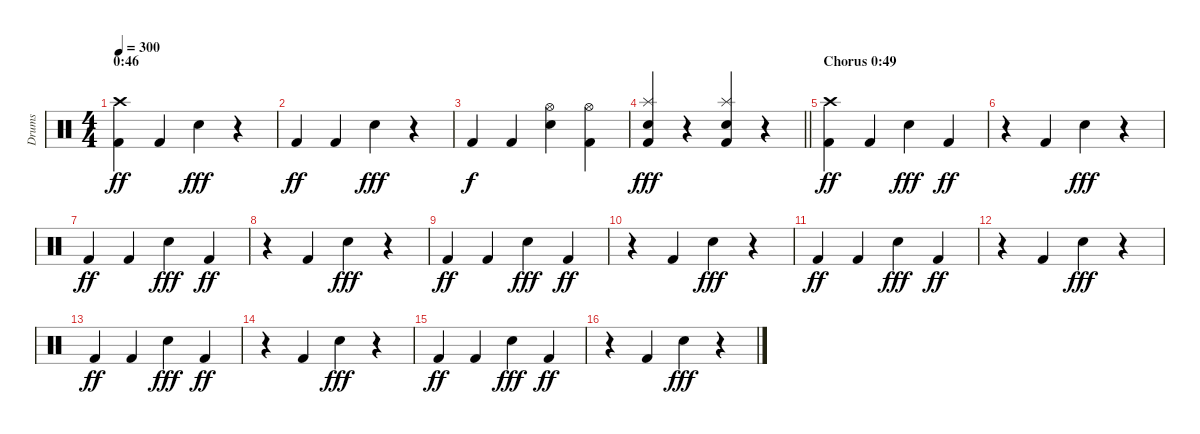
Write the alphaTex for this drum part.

\track ("Drums" "Drums") {instrument percussion}
\staff {score}
\articulation defaults
\ts (4 4)
\section ("" "0:46")
\tempo 300
\clef neutral
\ks c
("Crash high (hit)" "Kick (hit) 2").4{dy ff} "Kick (hit) 2".4 "Electric Snare (hit)".4{dy fff} r.4 |
"Kick (hit) 2".4{dy ff} "Kick (hit) 2".4 "Electric Snare (hit)".4{dy fff} r.4 |
"Kick (hit) 2".4{dy f} "Kick (hit) 2".4 ("Hi-Hat (open)" "Electric Snare (hit)").4 ("Hi-Hat (open)" "Kick (hit) 2").4 |
\barLineRight lightlight
("Splash (hit)" "Snare (hit) 2" "Kick (hit) 2").4{dy fff} r.4 ("Splash (hit)" "Snare (hit) 2" "Kick (hit) 2").4 r.4 |
\section ("" "Chorus 0:49")
("Crash high (hit)" "Kick (hit) 2").4{dy ff} "Kick (hit) 2".4 "Electric Snare (hit)".4{dy fff} "Kick (hit) 2".4{dy ff} |
r.4 "Kick (hit) 2".4 "Electric Snare (hit)".4{dy fff} r.4 |
"Kick (hit) 2".4{dy ff} "Kick (hit) 2".4 "Electric Snare (hit)".4{dy fff} "Kick (hit) 2".4{dy ff} |
r.4 "Kick (hit) 2".4 "Electric Snare (hit)".4{dy fff} r.4 |
"Kick (hit) 2".4{dy ff} "Kick (hit) 2".4 "Electric Snare (hit)".4{dy fff} "Kick (hit) 2".4{dy ff} |
r.4 "Kick (hit) 2".4 "Electric Snare (hit)".4{dy fff} r.4 |
"Kick (hit) 2".4{dy ff} "Kick (hit) 2".4 "Electric Snare (hit)".4{dy fff} "Kick (hit) 2".4{dy ff} |
r.4 "Kick (hit) 2".4 "Electric Snare (hit)".4{dy fff} r.4 |
"Kick (hit) 2".4{dy ff} "Kick (hit) 2".4 "Electric Snare (hit)".4{dy fff} "Kick (hit) 2".4{dy ff} |
r.4 "Kick (hit) 2".4 "Electric Snare (hit)".4{dy fff} r.4 |
"Kick (hit) 2".4{dy ff} "Kick (hit) 2".4 "Electric Snare (hit)".4{dy fff} "Kick (hit) 2".4{dy ff} |
r.4 "Kick (hit) 2".4 "Electric Snare (hit)".4{dy fff} r.4
